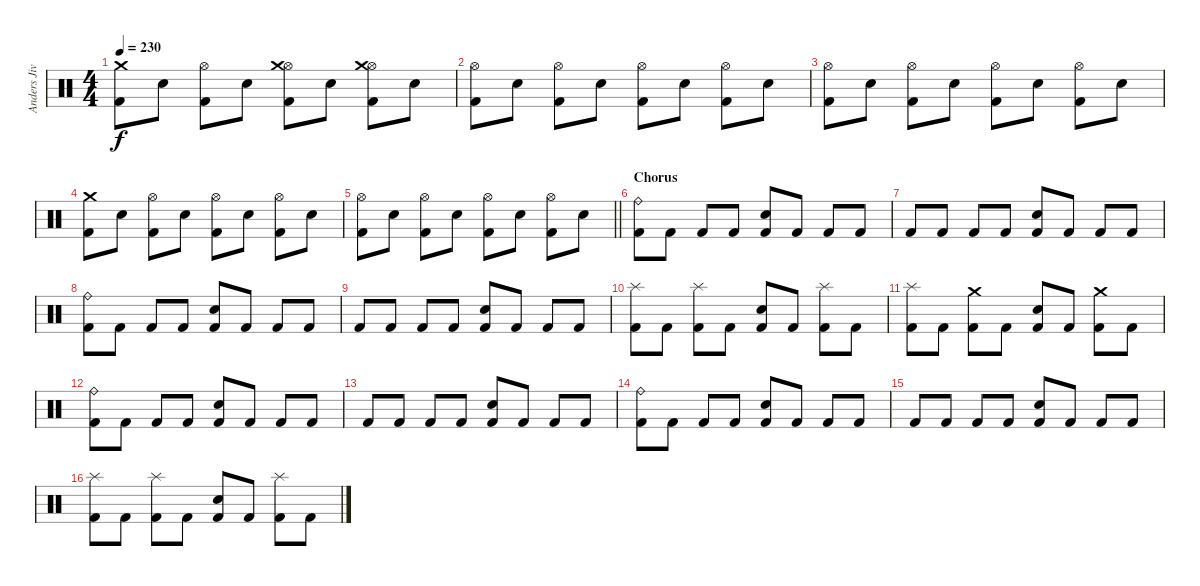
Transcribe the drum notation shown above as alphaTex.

\track ("Anders Jivarp" "Anders Jiv") {instrument percussion}
\staff {score}
\articulation defaults
\ts (4 4)
\tempo 230
\clef neutral
\ks c
("Kick (hit) 2" "Crash medium (hit)").8{dy f} "Electric Snare (hit)".8 ("Kick (hit) 2" "Hi-Hat (open)").8 "Electric Snare (hit)".8 ("Kick (hit) 2" "Hi-Hat (open)" "Crash medium (hit)").8 "Electric Snare (hit)".8 ("Kick (hit) 2" "Hi-Hat (open)" "Crash medium (hit)").8 "Electric Snare (hit)".8 |
("Kick (hit) 2" "Hi-Hat (open)").8 "Electric Snare (hit)".8 ("Kick (hit) 2" "Hi-Hat (open)").8 "Electric Snare (hit)".8 ("Kick (hit) 2" "Hi-Hat (open)").8 "Electric Snare (hit)".8 ("Kick (hit) 2" "Hi-Hat (open)").8 "Electric Snare (hit)".8 |
("Kick (hit) 2" "Hi-Hat (open)").8 "Electric Snare (hit)".8 ("Kick (hit) 2" "Hi-Hat (open)").8 "Electric Snare (hit)".8 ("Kick (hit) 2" "Hi-Hat (open)").8 "Electric Snare (hit)".8 ("Kick (hit) 2" "Hi-Hat (open)").8 "Electric Snare (hit)".8 |
("Kick (hit) 2" "Crash medium (hit)").8 "Electric Snare (hit)".8 ("Kick (hit) 2" "Hi-Hat (open)").8 "Electric Snare (hit)".8 ("Kick (hit) 2" "Hi-Hat (open)").8 "Electric Snare (hit)".8 ("Kick (hit) 2" "Hi-Hat (open)").8 "Electric Snare (hit)".8 |
\barLineRight lightlight
("Kick (hit) 2" "Hi-Hat (open)").8 "Electric Snare (hit)".8 ("Kick (hit) 2" "Hi-Hat (open)").8 "Electric Snare (hit)".8 ("Kick (hit) 2" "Hi-Hat (open)").8 "Electric Snare (hit)".8 ("Kick (hit) 2" "Hi-Hat (open)").8 "Electric Snare (hit)".8 |
\section ("" "Chorus")
("Kick (hit) 2" "Ride (bell)").8 "Kick (hit) 2".8 "Kick (hit) 2".8 "Kick (hit) 2".8 ("Kick (hit) 2" "Electric Snare (hit)").8 "Kick (hit) 2".8 "Kick (hit) 2".8 "Kick (hit) 2".8 |
"Kick (hit) 2".8 "Kick (hit) 2".8 "Kick (hit) 2".8 "Kick (hit) 2".8 ("Kick (hit) 2" "Electric Snare (hit)").8 "Kick (hit) 2".8 "Kick (hit) 2".8 "Kick (hit) 2".8 |
("Kick (hit) 2" "Ride (bell)").8 "Kick (hit) 2".8 "Kick (hit) 2".8 "Kick (hit) 2".8 ("Kick (hit) 2" "Electric Snare (hit)").8 "Kick (hit) 2".8 "Kick (hit) 2".8 "Kick (hit) 2".8 |
"Kick (hit) 2".8 "Kick (hit) 2".8 "Kick (hit) 2".8 "Kick (hit) 2".8 ("Kick (hit) 2" "Electric Snare (hit)").8 "Kick (hit) 2".8 "Kick (hit) 2".8 "Kick (hit) 2".8 |
("Kick (hit) 2" "Splash (hit)").8 "Kick (hit) 2".8 ("Kick (hit) 2" "Splash (hit)").8 "Kick (hit) 2".8 ("Kick (hit) 2" "Electric Snare (hit)").8 "Kick (hit) 2".8 ("Kick (hit) 2" "Splash (hit)").8 "Kick (hit) 2".8 |
("Kick (hit) 2" "Splash (hit)").8 "Kick (hit) 2".8 ("Kick (hit) 2" "Crash medium (hit)").8 "Kick (hit) 2".8 ("Kick (hit) 2" "Electric Snare (hit)").8 "Kick (hit) 2".8 ("Kick (hit) 2" "Crash medium (hit)").8 "Kick (hit) 2".8 |
("Kick (hit) 2" "Ride (bell)").8 "Kick (hit) 2".8 "Kick (hit) 2".8 "Kick (hit) 2".8 ("Kick (hit) 2" "Electric Snare (hit)").8 "Kick (hit) 2".8 "Kick (hit) 2".8 "Kick (hit) 2".8 |
"Kick (hit) 2".8 "Kick (hit) 2".8 "Kick (hit) 2".8 "Kick (hit) 2".8 ("Kick (hit) 2" "Electric Snare (hit)").8 "Kick (hit) 2".8 "Kick (hit) 2".8 "Kick (hit) 2".8 |
("Kick (hit) 2" "Ride (bell)").8 "Kick (hit) 2".8 "Kick (hit) 2".8 "Kick (hit) 2".8 ("Kick (hit) 2" "Electric Snare (hit)").8 "Kick (hit) 2".8 "Kick (hit) 2".8 "Kick (hit) 2".8 |
"Kick (hit) 2".8 "Kick (hit) 2".8 "Kick (hit) 2".8 "Kick (hit) 2".8 ("Kick (hit) 2" "Electric Snare (hit)").8 "Kick (hit) 2".8 "Kick (hit) 2".8 "Kick (hit) 2".8 |
("Kick (hit) 2" "Splash (hit)").8 "Kick (hit) 2".8 ("Kick (hit) 2" "Splash (hit)").8 "Kick (hit) 2".8 ("Kick (hit) 2" "Electric Snare (hit)").8 "Kick (hit) 2".8 ("Kick (hit) 2" "Splash (hit)").8 "Kick (hit) 2".8
